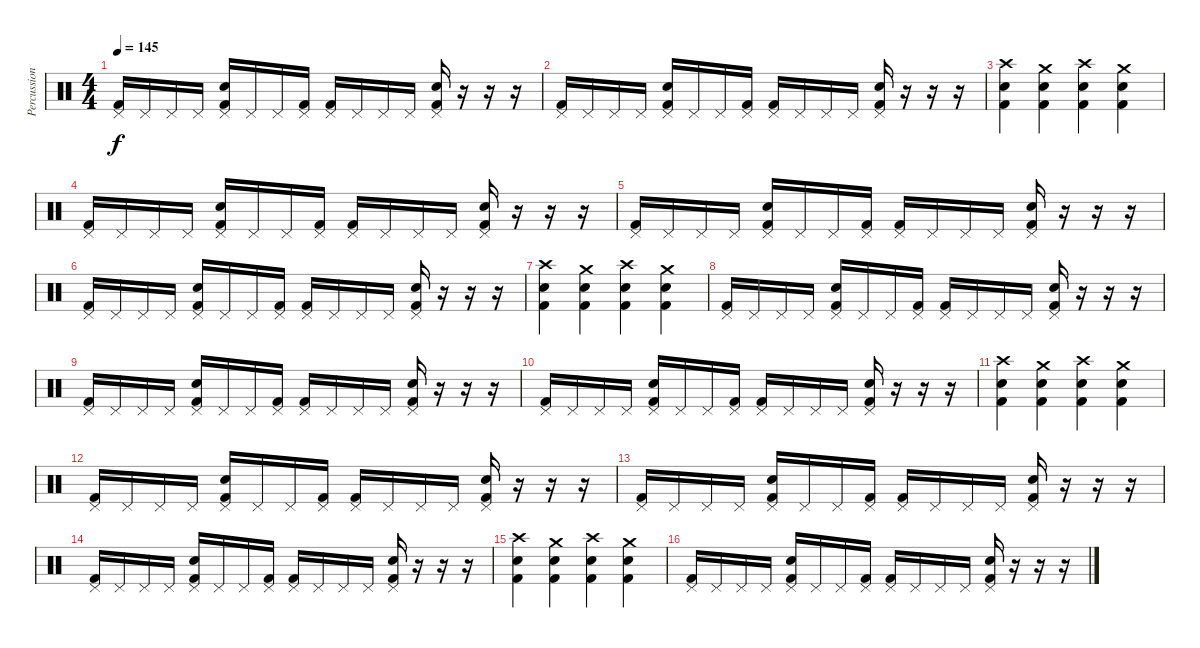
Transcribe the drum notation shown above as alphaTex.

\track ("Percussion" "Percussion") {instrument percussion}
\staff {score}
\articulation defaults
\ts (4 4)
\tempo 145
\clef neutral
\ks c
("Kick (hit) 2" "Pedal Hi-Hat (hit)").16{dy f} "Pedal Hi-Hat (hit)".16 "Pedal Hi-Hat (hit)".16 "Pedal Hi-Hat (hit)".16 ("Electric Snare (hit)" "Kick (hit) 2" "Pedal Hi-Hat (hit)").16 "Pedal Hi-Hat (hit)".16 "Pedal Hi-Hat (hit)".16 ("Kick (hit) 2" "Pedal Hi-Hat (hit)").16 ("Kick (hit) 2" "Pedal Hi-Hat (hit)").16 "Pedal Hi-Hat (hit)".16 "Pedal Hi-Hat (hit)".16 "Pedal Hi-Hat (hit)".16 ("Electric Snare (hit)" "Kick (hit) 2" "Pedal Hi-Hat (hit)").16 r.16 r.16 r.16 |
("Kick (hit) 2" "Pedal Hi-Hat (hit)").16 "Pedal Hi-Hat (hit)".16 "Pedal Hi-Hat (hit)".16 "Pedal Hi-Hat (hit)".16 ("Electric Snare (hit)" "Kick (hit) 2" "Pedal Hi-Hat (hit)").16 "Pedal Hi-Hat (hit)".16 "Pedal Hi-Hat (hit)".16 ("Kick (hit) 2" "Pedal Hi-Hat (hit)").16 ("Kick (hit) 2" "Pedal Hi-Hat (hit)").16 "Pedal Hi-Hat (hit)".16 "Pedal Hi-Hat (hit)".16 "Pedal Hi-Hat (hit)".16 ("Electric Snare (hit)" "Kick (hit) 2" "Pedal Hi-Hat (hit)").16 r.16 r.16 r.16 |
("Electric Snare (hit)" "Crash high (hit)" "Kick (hit) 2").4 ("Electric Snare (hit)" "Crash medium (hit)" "Kick (hit) 2").4 ("Electric Snare (hit)" "Crash high (hit)" "Kick (hit) 2").4 ("Electric Snare (hit)" "Crash medium (hit)" "Kick (hit) 2").4 |
("Kick (hit) 2" "Pedal Hi-Hat (hit)").16 "Pedal Hi-Hat (hit)".16 "Pedal Hi-Hat (hit)".16 "Pedal Hi-Hat (hit)".16 ("Electric Snare (hit)" "Kick (hit) 2" "Pedal Hi-Hat (hit)").16 "Pedal Hi-Hat (hit)".16 "Pedal Hi-Hat (hit)".16 ("Kick (hit) 2" "Pedal Hi-Hat (hit)").16 ("Kick (hit) 2" "Pedal Hi-Hat (hit)").16 "Pedal Hi-Hat (hit)".16 "Pedal Hi-Hat (hit)".16 "Pedal Hi-Hat (hit)".16 ("Electric Snare (hit)" "Kick (hit) 2" "Pedal Hi-Hat (hit)").16 r.16 r.16 r.16 |
("Kick (hit) 2" "Pedal Hi-Hat (hit)").16 "Pedal Hi-Hat (hit)".16 "Pedal Hi-Hat (hit)".16 "Pedal Hi-Hat (hit)".16 ("Electric Snare (hit)" "Kick (hit) 2" "Pedal Hi-Hat (hit)").16 "Pedal Hi-Hat (hit)".16 "Pedal Hi-Hat (hit)".16 ("Kick (hit) 2" "Pedal Hi-Hat (hit)").16 ("Kick (hit) 2" "Pedal Hi-Hat (hit)").16 "Pedal Hi-Hat (hit)".16 "Pedal Hi-Hat (hit)".16 "Pedal Hi-Hat (hit)".16 ("Electric Snare (hit)" "Kick (hit) 2" "Pedal Hi-Hat (hit)").16 r.16 r.16 r.16 |
("Kick (hit) 2" "Pedal Hi-Hat (hit)").16 "Pedal Hi-Hat (hit)".16 "Pedal Hi-Hat (hit)".16 "Pedal Hi-Hat (hit)".16 ("Electric Snare (hit)" "Kick (hit) 2" "Pedal Hi-Hat (hit)").16 "Pedal Hi-Hat (hit)".16 "Pedal Hi-Hat (hit)".16 ("Kick (hit) 2" "Pedal Hi-Hat (hit)").16 ("Kick (hit) 2" "Pedal Hi-Hat (hit)").16 "Pedal Hi-Hat (hit)".16 "Pedal Hi-Hat (hit)".16 "Pedal Hi-Hat (hit)".16 ("Electric Snare (hit)" "Kick (hit) 2" "Pedal Hi-Hat (hit)").16 r.16 r.16 r.16 |
("Electric Snare (hit)" "Crash high (hit)" "Kick (hit) 2").4 ("Electric Snare (hit)" "Crash medium (hit)" "Kick (hit) 2").4 ("Electric Snare (hit)" "Crash high (hit)" "Kick (hit) 2").4 ("Electric Snare (hit)" "Crash medium (hit)" "Kick (hit) 2").4 |
("Kick (hit) 2" "Pedal Hi-Hat (hit)").16 "Pedal Hi-Hat (hit)".16 "Pedal Hi-Hat (hit)".16 "Pedal Hi-Hat (hit)".16 ("Electric Snare (hit)" "Kick (hit) 2" "Pedal Hi-Hat (hit)").16 "Pedal Hi-Hat (hit)".16 "Pedal Hi-Hat (hit)".16 ("Kick (hit) 2" "Pedal Hi-Hat (hit)").16 ("Kick (hit) 2" "Pedal Hi-Hat (hit)").16 "Pedal Hi-Hat (hit)".16 "Pedal Hi-Hat (hit)".16 "Pedal Hi-Hat (hit)".16 ("Electric Snare (hit)" "Kick (hit) 2" "Pedal Hi-Hat (hit)").16 r.16 r.16 r.16 |
("Kick (hit) 2" "Pedal Hi-Hat (hit)").16 "Pedal Hi-Hat (hit)".16 "Pedal Hi-Hat (hit)".16 "Pedal Hi-Hat (hit)".16 ("Electric Snare (hit)" "Kick (hit) 2" "Pedal Hi-Hat (hit)").16 "Pedal Hi-Hat (hit)".16 "Pedal Hi-Hat (hit)".16 ("Kick (hit) 2" "Pedal Hi-Hat (hit)").16 ("Kick (hit) 2" "Pedal Hi-Hat (hit)").16 "Pedal Hi-Hat (hit)".16 "Pedal Hi-Hat (hit)".16 "Pedal Hi-Hat (hit)".16 ("Electric Snare (hit)" "Kick (hit) 2" "Pedal Hi-Hat (hit)").16 r.16 r.16 r.16 |
("Kick (hit) 2" "Pedal Hi-Hat (hit)").16 "Pedal Hi-Hat (hit)".16 "Pedal Hi-Hat (hit)".16 "Pedal Hi-Hat (hit)".16 ("Electric Snare (hit)" "Kick (hit) 2" "Pedal Hi-Hat (hit)").16 "Pedal Hi-Hat (hit)".16 "Pedal Hi-Hat (hit)".16 ("Kick (hit) 2" "Pedal Hi-Hat (hit)").16 ("Kick (hit) 2" "Pedal Hi-Hat (hit)").16 "Pedal Hi-Hat (hit)".16 "Pedal Hi-Hat (hit)".16 "Pedal Hi-Hat (hit)".16 ("Electric Snare (hit)" "Kick (hit) 2" "Pedal Hi-Hat (hit)").16 r.16 r.16 r.16 |
("Electric Snare (hit)" "Crash high (hit)" "Kick (hit) 2").4 ("Electric Snare (hit)" "Crash medium (hit)" "Kick (hit) 2").4 ("Electric Snare (hit)" "Crash high (hit)" "Kick (hit) 2").4 ("Electric Snare (hit)" "Crash medium (hit)" "Kick (hit) 2").4 |
("Kick (hit) 2" "Pedal Hi-Hat (hit)").16 "Pedal Hi-Hat (hit)".16 "Pedal Hi-Hat (hit)".16 "Pedal Hi-Hat (hit)".16 ("Electric Snare (hit)" "Kick (hit) 2" "Pedal Hi-Hat (hit)").16 "Pedal Hi-Hat (hit)".16 "Pedal Hi-Hat (hit)".16 ("Kick (hit) 2" "Pedal Hi-Hat (hit)").16 ("Kick (hit) 2" "Pedal Hi-Hat (hit)").16 "Pedal Hi-Hat (hit)".16 "Pedal Hi-Hat (hit)".16 "Pedal Hi-Hat (hit)".16 ("Electric Snare (hit)" "Kick (hit) 2" "Pedal Hi-Hat (hit)").16 r.16 r.16 r.16 |
("Kick (hit) 2" "Pedal Hi-Hat (hit)").16 "Pedal Hi-Hat (hit)".16 "Pedal Hi-Hat (hit)".16 "Pedal Hi-Hat (hit)".16 ("Electric Snare (hit)" "Kick (hit) 2" "Pedal Hi-Hat (hit)").16 "Pedal Hi-Hat (hit)".16 "Pedal Hi-Hat (hit)".16 ("Kick (hit) 2" "Pedal Hi-Hat (hit)").16 ("Kick (hit) 2" "Pedal Hi-Hat (hit)").16 "Pedal Hi-Hat (hit)".16 "Pedal Hi-Hat (hit)".16 "Pedal Hi-Hat (hit)".16 ("Electric Snare (hit)" "Kick (hit) 2" "Pedal Hi-Hat (hit)").16 r.16 r.16 r.16 |
("Kick (hit) 2" "Pedal Hi-Hat (hit)").16 "Pedal Hi-Hat (hit)".16 "Pedal Hi-Hat (hit)".16 "Pedal Hi-Hat (hit)".16 ("Electric Snare (hit)" "Kick (hit) 2" "Pedal Hi-Hat (hit)").16 "Pedal Hi-Hat (hit)".16 "Pedal Hi-Hat (hit)".16 ("Kick (hit) 2" "Pedal Hi-Hat (hit)").16 ("Kick (hit) 2" "Pedal Hi-Hat (hit)").16 "Pedal Hi-Hat (hit)".16 "Pedal Hi-Hat (hit)".16 "Pedal Hi-Hat (hit)".16 ("Electric Snare (hit)" "Kick (hit) 2" "Pedal Hi-Hat (hit)").16 r.16 r.16 r.16 |
("Electric Snare (hit)" "Crash high (hit)" "Kick (hit) 2").4 ("Electric Snare (hit)" "Crash medium (hit)" "Kick (hit) 2").4 ("Electric Snare (hit)" "Crash high (hit)" "Kick (hit) 2").4 ("Electric Snare (hit)" "Crash medium (hit)" "Kick (hit) 2").4 |
("Kick (hit) 2" "Pedal Hi-Hat (hit)").16 "Pedal Hi-Hat (hit)".16 "Pedal Hi-Hat (hit)".16 "Pedal Hi-Hat (hit)".16 ("Electric Snare (hit)" "Kick (hit) 2" "Pedal Hi-Hat (hit)").16 "Pedal Hi-Hat (hit)".16 "Pedal Hi-Hat (hit)".16 ("Kick (hit) 2" "Pedal Hi-Hat (hit)").16 ("Kick (hit) 2" "Pedal Hi-Hat (hit)").16 "Pedal Hi-Hat (hit)".16 "Pedal Hi-Hat (hit)".16 "Pedal Hi-Hat (hit)".16 ("Electric Snare (hit)" "Kick (hit) 2" "Pedal Hi-Hat (hit)").16 r.16 r.16 r.16
